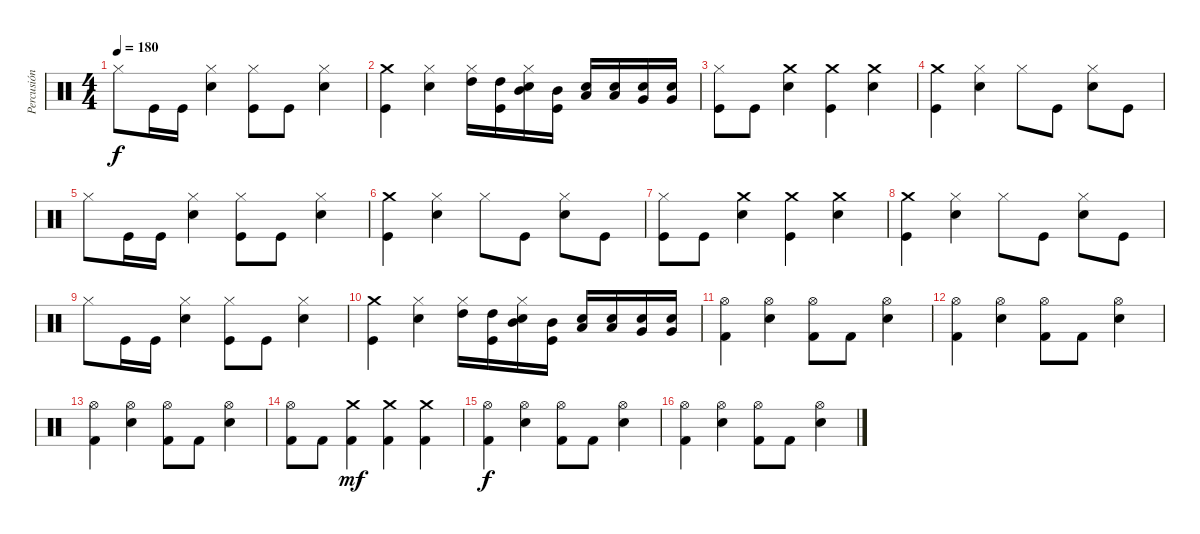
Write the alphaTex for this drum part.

\track ("Percusión" "Percusión") {instrument percussion}
\staff {score}
\articulation defaults
\ts (4 4)
\tempo 180
\clef neutral
\ks c "Hi-Hat (closed)".8{dy f} "Kick (hit)".16 "Kick (hit)".16
("Snare (hit) 2" "Hi-Hat (closed)").4 ("Kick (hit)" "Hi-Hat (closed)").8 "Kick (hit)".8 ("Snare (hit) 2" "Hi-Hat (closed)").4 |
("Kick (hit)" "Crash medium (hit)").4 ("Hi-Hat (closed)" "Snare (hit) 2").4 ("Hi-Hat (closed)" "High Tom (hit)").16 ("Kick (hit)" "High Tom (hit)").16 ("Snare (hit) 2" "Hi-Hat (closed)" "Mid Tom (hit)").16 ("Kick (hit)" "Mid Tom (hit)").16 ("Snare (hit) 2" "Low Tom (hit)").16 ("Snare (hit) 2" "Low Tom (hit)").16 ("Snare (hit) 2" "Very Low Tom (hit)").16 ("Snare (hit) 2" "Very Low Tom (hit)").16 |
("Kick (hit)" "Hi-Hat (closed)").8 "Kick (hit)".8 ("Crash medium (hit)" "Snare (hit) 2").4 ("Kick (hit)" "Crash medium (hit)").4 ("Snare (hit) 2" "Crash medium (hit)").4 |
("Kick (hit)" "Crash medium (hit)").4 ("Snare (hit) 2" "Hi-Hat (closed)").4 "Hi-Hat (closed)".8 "Kick (hit)".8 ("Snare (hit) 2" "Hi-Hat (closed)").8 "Kick (hit)".8 |
"Hi-Hat (closed)".8 "Kick (hit)".16 "Kick (hit)".16 ("Snare (hit) 2" "Hi-Hat (closed)").4 ("Kick (hit)" "Hi-Hat (closed)").8 "Kick (hit)".8 ("Snare (hit) 2" "Hi-Hat (closed)").4 |
("Kick (hit)" "Crash medium (hit)").4 ("Hi-Hat (closed)" "Snare (hit) 2").4 "Hi-Hat (closed)".8 "Kick (hit)".8 ("Snare (hit) 2" "Hi-Hat (closed)").8 "Kick (hit)".8 |
("Kick (hit)" "Hi-Hat (closed)").8 "Kick (hit)".8 ("Crash medium (hit)" "Snare (hit) 2").4 ("Kick (hit)" "Crash medium (hit)").4 ("Snare (hit) 2" "Crash medium (hit)").4 |
("Kick (hit)" "Crash medium (hit)").4 ("Snare (hit) 2" "Hi-Hat (closed)").4 "Hi-Hat (closed)".8 "Kick (hit)".8 ("Snare (hit) 2" "Hi-Hat (closed)").8 "Kick (hit)".8 |
"Hi-Hat (closed)".8 "Kick (hit)".16 "Kick (hit)".16 ("Snare (hit) 2" "Hi-Hat (closed)").4 ("Kick (hit)" "Hi-Hat (closed)").8 "Kick (hit)".8 ("Snare (hit) 2" "Hi-Hat (closed)").4 |
("Kick (hit)" "Crash medium (hit)").4 ("Hi-Hat (closed)" "Snare (hit) 2").4 ("Hi-Hat (closed)" "High Tom (hit)").16 ("Kick (hit)" "High Tom (hit)").16 ("Snare (hit) 2" "Hi-Hat (closed)" "Mid Tom (hit)").16 ("Kick (hit)" "Mid Tom (hit)").16 ("Snare (hit) 2" "Low Tom (hit)").16 ("Snare (hit) 2" "Low Tom (hit)").16 ("Snare (hit) 2" "Very Low Tom (hit)").16 ("Snare (hit) 2" "Very Low Tom (hit)").16 |
("Hi-Hat (open)" "Kick (hit) 2").4 ("Hi-Hat (open)" "Electric Snare (hit)").4 ("Hi-Hat (open)" "Kick (hit) 2").8 "Kick (hit) 2".8 ("Hi-Hat (open)" "Electric Snare (hit)").4 |
("Hi-Hat (open)" "Kick (hit) 2").4 ("Hi-Hat (open)" "Electric Snare (hit)").4 ("Hi-Hat (open)" "Kick (hit) 2").8 "Kick (hit) 2".8 ("Hi-Hat (open)" "Electric Snare (hit)").4 |
("Hi-Hat (open)" "Kick (hit) 2").4 ("Hi-Hat (open)" "Electric Snare (hit)").4 ("Hi-Hat (open)" "Kick (hit) 2").8 "Kick (hit) 2".8 ("Hi-Hat (open)" "Electric Snare (hit)").4 |
("Hi-Hat (open)" "Kick (hit) 2").8 "Kick (hit) 2".8 ("Crash medium (hit)" "Kick (hit) 2").4{dy mf} ("Crash medium (hit)" "Kick (hit) 2").4 ("Crash medium (hit)" "Kick (hit) 2").4 |
("Hi-Hat (open)" "Kick (hit) 2").4{dy f} ("Hi-Hat (open)" "Electric Snare (hit)").4 ("Hi-Hat (open)" "Kick (hit) 2").8 "Kick (hit) 2".8 ("Hi-Hat (open)" "Electric Snare (hit)").4 |
("Hi-Hat (open)" "Kick (hit) 2").4 ("Hi-Hat (open)" "Electric Snare (hit)").4 ("Hi-Hat (open)" "Kick (hit) 2").8 "Kick (hit) 2".8 ("Hi-Hat (open)" "Electric Snare (hit)").4
